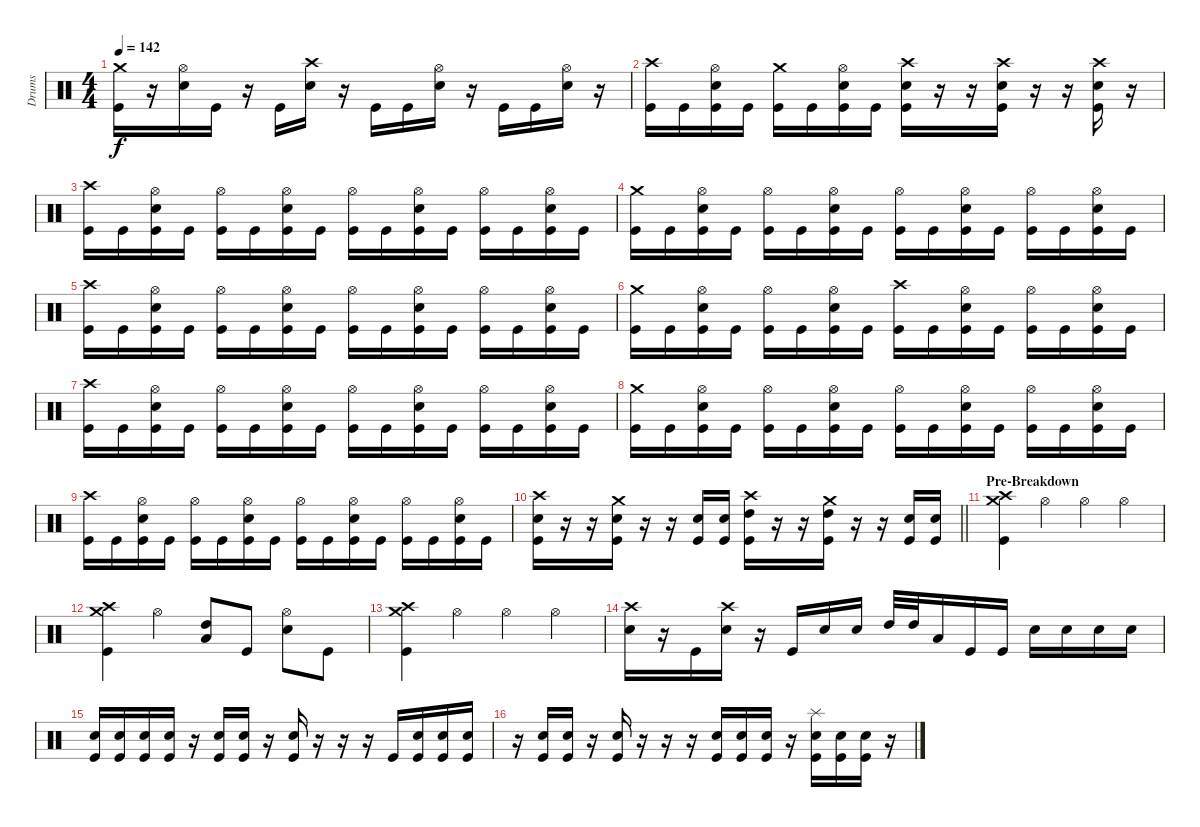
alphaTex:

\track ("Drums" "Drums") {instrument percussion}
\staff {score}
\articulation defaults
\ts (4 4)
\tempo 142
\clef neutral
\ks c
("Crash medium (hit)" "Kick (hit)").16{dy f} r.16 ("Hi-Hat (open)" "Snare (hit) 2").16 "Kick (hit)".16 r.16 "Kick (hit)".16 ("Crash high (hit)" "Snare (hit) 2").16 r.16 "Kick (hit)".16 "Kick (hit)".16 ("Hi-Hat (open)" "Snare (hit) 2").16 r.16 "Kick (hit)".16 "Kick (hit)".16 ("Hi-Hat (open)" "Snare (hit) 2").16 r.16 |
("Crash high (hit)" "Kick (hit)").16 "Kick (hit)".16 ("Hi-Hat (open)" "Snare (hit) 2" "Kick (hit)").16 "Kick (hit)".16 ("Crash medium (hit)" "Kick (hit)").16 "Kick (hit)".16 ("Hi-Hat (open)" "Snare (hit) 2" "Kick (hit)").16 "Kick (hit)".16 ("Crash high (hit)" "Snare (hit) 2" "Kick (hit)").16 r.16 r.16 ("Crash high (hit)" "Snare (hit) 2" "Kick (hit)").16 r.16 r.16 ("Crash high (hit)" "Snare (hit) 2" "Kick (hit)").16 r.16 |
("Crash high (hit)" "Kick (hit)").16 "Kick (hit)".16 ("Hi-Hat (open)" "Snare (hit) 2" "Kick (hit)").16 "Kick (hit)".16 ("Hi-Hat (open)" "Kick (hit)").16 "Kick (hit)".16 ("Hi-Hat (open)" "Snare (hit) 2" "Kick (hit)").16 "Kick (hit)".16 ("Hi-Hat (open)" "Kick (hit)").16 "Kick (hit)".16 ("Hi-Hat (open)" "Snare (hit) 2" "Kick (hit)").16 "Kick (hit)".16 ("Hi-Hat (open)" "Kick (hit)").16 "Kick (hit)".16 ("Hi-Hat (open)" "Snare (hit) 2" "Kick (hit)").16 "Kick (hit)".16 |
("Crash medium (hit)" "Kick (hit)").16 "Kick (hit)".16 ("Hi-Hat (open)" "Snare (hit) 2" "Kick (hit)").16 "Kick (hit)".16 ("Hi-Hat (open)" "Kick (hit)").16 "Kick (hit)".16 ("Hi-Hat (open)" "Snare (hit) 2" "Kick (hit)").16 "Kick (hit)".16 ("Hi-Hat (open)" "Kick (hit)").16 "Kick (hit)".16 ("Hi-Hat (open)" "Snare (hit) 2" "Kick (hit)").16 "Kick (hit)".16 ("Hi-Hat (open)" "Kick (hit)").16 "Kick (hit)".16 ("Hi-Hat (open)" "Snare (hit) 2" "Kick (hit)").16 "Kick (hit)".16 |
("Crash high (hit)" "Kick (hit)").16 "Kick (hit)".16 ("Hi-Hat (open)" "Snare (hit) 2" "Kick (hit)").16 "Kick (hit)".16 ("Hi-Hat (open)" "Kick (hit)").16 "Kick (hit)".16 ("Hi-Hat (open)" "Snare (hit) 2" "Kick (hit)").16 "Kick (hit)".16 ("Hi-Hat (open)" "Kick (hit)").16 "Kick (hit)".16 ("Hi-Hat (open)" "Snare (hit) 2" "Kick (hit)").16 "Kick (hit)".16 ("Hi-Hat (open)" "Kick (hit)").16 "Kick (hit)".16 ("Hi-Hat (open)" "Snare (hit) 2" "Kick (hit)").16 "Kick (hit)".16 |
("Crash medium (hit)" "Kick (hit)").16 "Kick (hit)".16 ("Hi-Hat (open)" "Snare (hit) 2" "Kick (hit)").16 "Kick (hit)".16 ("Hi-Hat (open)" "Kick (hit)").16 "Kick (hit)".16 ("Hi-Hat (open)" "Snare (hit) 2" "Kick (hit)").16 "Kick (hit)".16 ("Crash high (hit)" "Kick (hit)").16 "Kick (hit)".16 ("Hi-Hat (open)" "Snare (hit) 2" "Kick (hit)").16 "Kick (hit)".16 ("Hi-Hat (open)" "Kick (hit)").16 "Kick (hit)".16 ("Hi-Hat (open)" "Snare (hit) 2" "Kick (hit)").16 "Kick (hit)".16 |
("Crash high (hit)" "Kick (hit)").16 "Kick (hit)".16 ("Hi-Hat (open)" "Snare (hit) 2" "Kick (hit)").16 "Kick (hit)".16 ("Hi-Hat (open)" "Kick (hit)").16 "Kick (hit)".16 ("Hi-Hat (open)" "Snare (hit) 2" "Kick (hit)").16 "Kick (hit)".16 ("Hi-Hat (open)" "Kick (hit)").16 "Kick (hit)".16 ("Hi-Hat (open)" "Snare (hit) 2" "Kick (hit)").16 "Kick (hit)".16 ("Hi-Hat (open)" "Kick (hit)").16 "Kick (hit)".16 ("Hi-Hat (open)" "Snare (hit) 2" "Kick (hit)").16 "Kick (hit)".16 |
("Crash medium (hit)" "Kick (hit)").16 "Kick (hit)".16 ("Hi-Hat (open)" "Snare (hit) 2" "Kick (hit)").16 "Kick (hit)".16 ("Hi-Hat (open)" "Kick (hit)").16 "Kick (hit)".16 ("Hi-Hat (open)" "Snare (hit) 2" "Kick (hit)").16 "Kick (hit)".16 ("Hi-Hat (open)" "Kick (hit)").16 "Kick (hit)".16 ("Hi-Hat (open)" "Snare (hit) 2" "Kick (hit)").16 "Kick (hit)".16 ("Hi-Hat (open)" "Kick (hit)").16 "Kick (hit)".16 ("Hi-Hat (open)" "Snare (hit) 2" "Kick (hit)").16 "Kick (hit)".16 |
("Crash high (hit)" "Kick (hit)").16 "Kick (hit)".16 ("Hi-Hat (open)" "Snare (hit) 2" "Kick (hit)").16 "Kick (hit)".16 ("Hi-Hat (open)" "Kick (hit)").16 "Kick (hit)".16 ("Hi-Hat (open)" "Snare (hit) 2" "Kick (hit)").16 "Kick (hit)".16 ("Hi-Hat (open)" "Kick (hit)").16 "Kick (hit)".16 ("Hi-Hat (open)" "Snare (hit) 2" "Kick (hit)").16 "Kick (hit)".16 ("Hi-Hat (open)" "Kick (hit)").16 "Kick (hit)".16 ("Hi-Hat (open)" "Snare (hit) 2" "Kick (hit)").16 "Kick (hit)".16 |
\barLineRight lightlight
("Crash high (hit)" "Snare (hit) 2" "Kick (hit)").16 r.16 r.16 ("Crash medium (hit)" "Snare (hit) 2" "Kick (hit)").16 r.16 r.16 ("Snare (hit) 2" "Kick (hit)").16 ("Snare (hit) 2" "Kick (hit)").16 ("Crash high (hit)" "High Tom (hit)" "Kick (hit)").16 r.16 r.16 ("Crash medium (hit)" "High Tom (hit)" "Kick (hit)").16 r.16 r.16 ("Snare (hit) 2" "Kick (hit)").16 ("Snare (hit) 2" "Kick (hit)").16 |
\section ("" "Pre-Breakdown")
("Crash high (hit)" "Crash medium (hit)" "Kick (hit)").4 "Hi-Hat (open)".4 "Hi-Hat (open)".4 "Hi-Hat (open)".4 |
("Crash high (hit)" "Crash medium (hit)" "Kick (hit)").4 "Hi-Hat (open)".4 ("High Tom (hit)" "Low Tom (hit)").8 "Kick (hit)".8 ("Hi-Hat (open)" "Snare (hit) 2").8 "Kick (hit)".8 |
("Crash high (hit)" "Crash medium (hit)" "Kick (hit)").4 "Hi-Hat (open)".4 "Hi-Hat (open)".4 "Hi-Hat (open)".4 |
("Crash high (hit)" "Snare (hit) 2").16 r.16 "Kick (hit)".16 ("Crash high (hit)" "Snare (hit) 2").16 r.16 "Kick (hit)".16 "Snare (hit) 2".16 "Snare (hit) 2".16 "High Tom (hit)".32 "High Tom (hit)".32 "Low Tom (hit)".16 "Kick (hit)".16 "Kick (hit)".16 "Snare (hit) 2".16 "Snare (hit) 2".16 "Snare (hit) 2".16 "Snare (hit) 2".16 |
("Snare (hit) 2" "Kick (hit)").16 ("Snare (hit) 2" "Kick (hit)").16 ("Snare (hit) 2" "Kick (hit)").16 ("Snare (hit) 2" "Kick (hit)").16 r.16 ("Snare (hit) 2" "Kick (hit)").16 ("Snare (hit) 2" "Kick (hit)").16 r.16 ("Snare (hit) 2" "Kick (hit)").16 r.16 r.16 r.16 "Kick (hit)".16 ("Snare (hit) 2" "Kick (hit)").16 ("Snare (hit) 2" "Kick (hit)").16 ("Snare (hit) 2" "Kick (hit)").16 |
r.16 ("Snare (hit) 2" "Kick (hit)").16 ("Snare (hit) 2" "Kick (hit)").16 r.16 ("Snare (hit) 2" "Kick (hit)").16 r.16 r.16 r.16 ("Snare (hit) 2" "Kick (hit)").16 ("Snare (hit) 2" "Kick (hit)").16 ("Snare (hit) 2" "Kick (hit)").16 r.16 ("Splash (hit)" "Snare (hit) 2" "Kick (hit)").16 ("Snare (hit) 2" "Kick (hit)").16 ("Snare (hit) 2" "Kick (hit)").16 r.16
